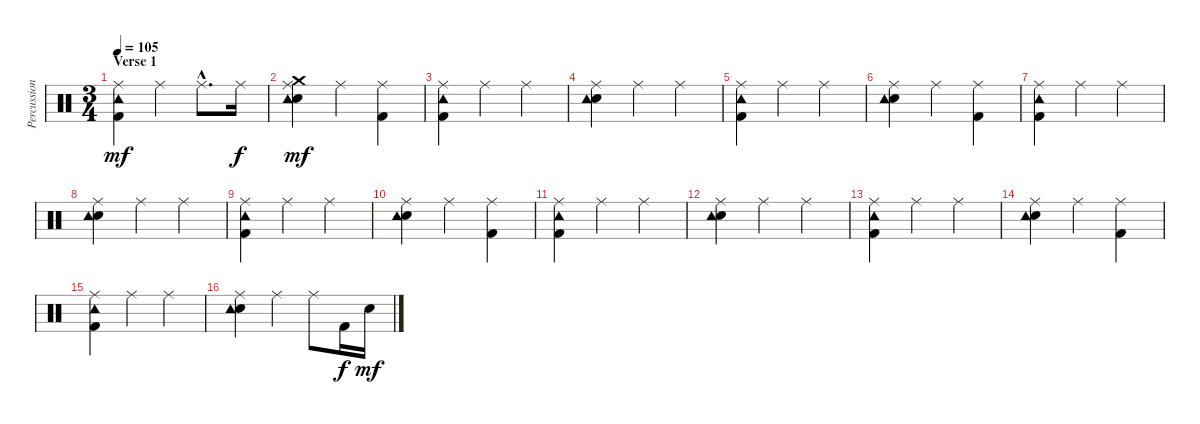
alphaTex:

\track ("Percussion" "Percussion") {instrument percussion}
\staff {score}
\articulation defaults
\ts (3 4)
\section ("" "Verse 1")
\tempo 105
\clef neutral
\ks c
("Kick (hit) 2" "Tambourine (hit)" "Ride (middle)").4{dy mf} "Ride (middle)".4 "Ride (middle)"{hac}.8{d} "Ride (middle)".16{dy f} |
("Snare (hit) 2" "Tambourine (hit)" "Crash medium (hit)" "Ride (middle)").4{dy mf} "Ride (middle)".4 ("Kick (hit) 2" "Ride (middle)").4 |
("Kick (hit) 2" "Tambourine (hit)" "Ride (middle)").4 "Ride (middle)".4 "Ride (middle)".4 |
("Snare (hit) 2" "Tambourine (hit)" "Ride (middle)").4 "Ride (middle)".4 "Ride (middle)".4 |
("Kick (hit) 2" "Tambourine (hit)" "Ride (middle)").4 "Ride (middle)".4 "Ride (middle)".4 |
("Snare (hit) 2" "Tambourine (hit)" "Ride (middle)").4 "Ride (middle)".4 ("Kick (hit) 2" "Ride (middle)").4 |
("Kick (hit) 2" "Tambourine (hit)" "Ride (middle)").4 "Ride (middle)".4 "Ride (middle)".4 |
("Snare (hit) 2" "Tambourine (hit)" "Ride (middle)").4 "Ride (middle)".4 "Ride (middle)".4 |
("Kick (hit) 2" "Tambourine (hit)" "Ride (middle)").4 "Ride (middle)".4 "Ride (middle)".4 |
("Snare (hit) 2" "Tambourine (hit)" "Ride (middle)").4 "Ride (middle)".4 ("Kick (hit) 2" "Ride (middle)").4 |
("Kick (hit) 2" "Tambourine (hit)" "Ride (middle)").4 "Ride (middle)".4 "Ride (middle)".4 |
("Snare (hit) 2" "Tambourine (hit)" "Ride (middle)").4 "Ride (middle)".4 "Ride (middle)".4 |
("Kick (hit) 2" "Tambourine (hit)" "Ride (middle)").4 "Ride (middle)".4 "Ride (middle)".4 |
("Snare (hit) 2" "Tambourine (hit)" "Ride (middle)").4 "Ride (middle)".4 ("Kick (hit) 2" "Ride (middle)").4 |
("Kick (hit) 2" "Tambourine (hit)" "Ride (middle)").4 "Ride (middle)".4 "Ride (middle)".4 |
("Snare (hit) 2" "Tambourine (hit)" "Ride (middle)").4 "Ride (middle)".4 "Ride (middle)".8 "Kick (hit) 2".16{dy f} "Snare (hit) 2".16{dy mf}
